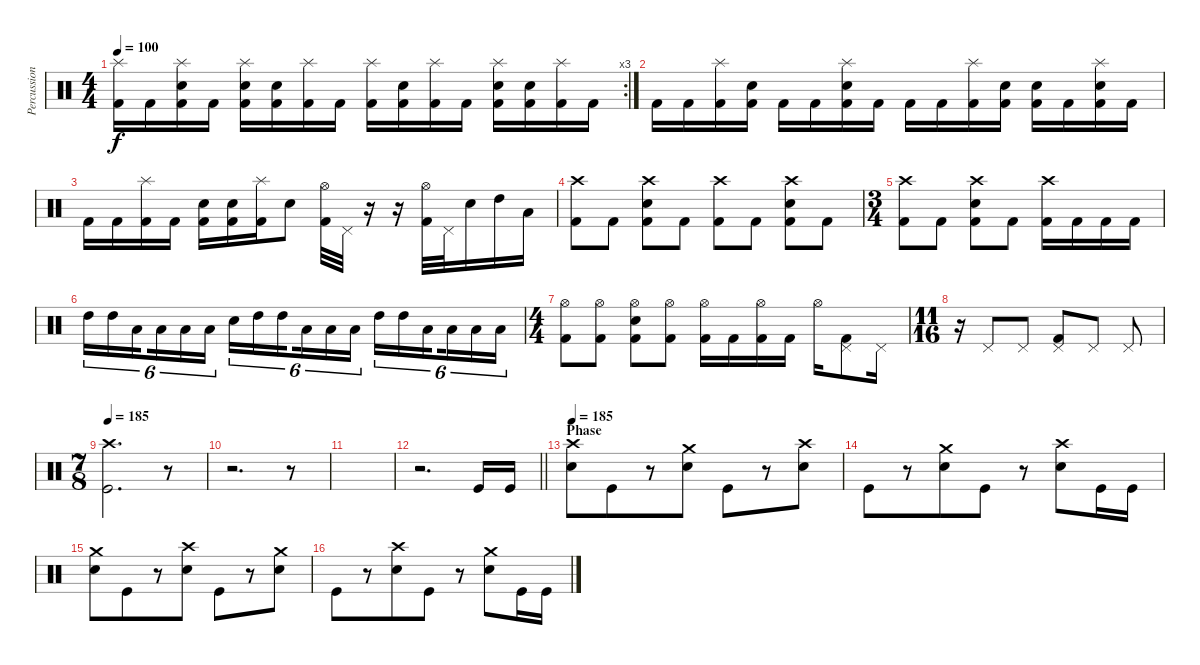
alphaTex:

\track ("Percussion" "Percussion") {instrument percussion}
\staff {score}
\articulation defaults
\rc 3
\ts (4 4)
\tempo 100
\clef neutral
\ks c
("Splash (hit)" "Kick (hit) 2").16{dy f} "Kick (hit) 2".16 ("Splash (hit)" "Electric Snare (hit)" "Kick (hit) 2").16 "Kick (hit) 2".16 ("Splash (hit)" "Electric Snare (hit)" "Kick (hit) 2").16 ("Electric Snare (hit)" "Kick (hit) 2").16 ("Splash (hit)" "Kick (hit) 2").16 "Kick (hit) 2".16 ("Splash (hit)" "Kick (hit) 2").16 ("Electric Snare (hit)" "Kick (hit) 2").16 ("Splash (hit)" "Kick (hit) 2").16 "Kick (hit) 2".16 ("Splash (hit)" "Electric Snare (hit)" "Kick (hit) 2").16 ("Electric Snare (hit)" "Kick (hit) 2").16 ("Splash (hit)" "Kick (hit) 2").16 "Kick (hit) 2".16 |
"Kick (hit) 2".16 "Kick (hit) 2".16 ("Splash (hit)" "Kick (hit) 2").16 ("Electric Snare (hit)" "Kick (hit) 2").16 "Kick (hit) 2".16 "Kick (hit) 2".16 ("Splash (hit)" "Electric Snare (hit)" "Kick (hit) 2").16 "Kick (hit) 2".16 "Kick (hit) 2".16 "Kick (hit) 2".16 ("Splash (hit)" "Kick (hit) 2").16 ("Electric Snare (hit)" "Kick (hit) 2").16 ("Electric Snare (hit)" "Kick (hit) 2").16 "Kick (hit) 2".16 ("Splash (hit)" "Electric Snare (hit)" "Kick (hit) 2").16 "Kick (hit) 2".16 |
"Kick (hit) 2".16 "Kick (hit) 2".16 ("Splash (hit)" "Kick (hit) 2").16 "Kick (hit) 2".16 ("Electric Snare (hit)" "Kick (hit) 2").16 ("Electric Snare (hit)" "Kick (hit) 2").16 ("Splash (hit)" "Kick (hit) 2").16 "Electric Snare (hit)".8 ("Hi-Hat (open)" "Kick (hit) 2").32 "Pedal Hi-Hat (hit)".32 r.16 r.16 ("Hi-Hat (open)" "Kick (hit) 2").32 "Pedal Hi-Hat (hit)".32 "Electric Snare (hit)".16 "High Tom (hit)".16 "Low Floor Tom (hit)".16 |
("Crash high (hit)" "Kick (hit) 2").8 "Kick (hit) 2".8 ("Crash high (hit)" "Electric Snare (hit)" "Kick (hit) 2").8 "Kick (hit) 2".8 ("Crash high (hit)" "Kick (hit) 2").8 "Kick (hit) 2".8 ("Crash high (hit)" "Electric Snare (hit)" "Kick (hit) 2").8 "Kick (hit) 2".8 |
\ts (3 4)
("Crash high (hit)" "Kick (hit) 2").8 "Kick (hit) 2".8 ("Crash high (hit)" "Electric Snare (hit)" "Kick (hit) 2").8 "Kick (hit) 2".8 ("Crash high (hit)" "Kick (hit) 2").16 "Kick (hit) 2".16 "Kick (hit) 2".16 "Kick (hit) 2".16 |
"High Tom (hit)".16{tu (6 4)} "High Tom (hit)".16{tu (6 4)} "Low Tom (hit)".16{tu (6 4) beam splitsecondary} "Low Tom (hit)".16{tu (6 4)} "Low Floor Tom (hit)".16{tu (6 4)} "Low Floor Tom (hit)".16{tu (6 4)} "Electric Snare (hit)".16{tu (6 4)} "High Tom (hit)".16{tu (6 4)} "High Tom (hit)".16{tu (6 4) beam splitsecondary} "Low Tom (hit)".16{tu (6 4)} "Low Tom (hit)".16{tu (6 4)} "Low Floor Tom (hit)".16{tu (6 4)} "High Tom (hit)".16{tu (6 4)} "High Tom (hit)".16{tu (6 4)} "Low Tom (hit)".16{tu (6 4) beam splitsecondary} "Low Tom (hit)".16{tu (6 4)} "Low Floor Tom (hit)".16{tu (6 4)} "Low Floor Tom (hit)".16{tu (6 4)} |
\ts (4 4)
("Hi-Hat (open)" "Kick (hit) 2").8 ("Hi-Hat (open)" "Kick (hit) 2").8 ("Hi-Hat (open)" "Electric Snare (hit)" "Kick (hit) 2").8 ("Hi-Hat (open)" "Kick (hit) 2").8 ("Hi-Hat (open)" "Kick (hit) 2").16 "Kick (hit) 2".16 ("Hi-Hat (open)" "Kick (hit) 2").16 "Kick (hit) 2".16 "Hi-Hat (open)".16 ("Pedal Hi-Hat (hit)" "Kick (hit) 2").8 "Pedal Hi-Hat (hit)".16 |
\ts (11 16)
r.16 "Pedal Hi-Hat (hit)".8 "Pedal Hi-Hat (hit)".8 ("Pedal Hi-Hat (hit)" "Kick (hit) 2").8 "Pedal Hi-Hat (hit)".8 "Pedal Hi-Hat (hit)".8 |
\ts (7 8)
\tempo 185
("Kick (hit)" "Crash high (hit)").2{d} r.8 |
r.2{d} r.8 |
|
\barLineRight lightlight
r.2{d} "Kick (hit)".16 "Kick (hit)".16 |
\section ("" "Phase")
\tempo 185
("Electric Snare (hit)" "Crash high (hit)").8 "Kick (hit)".8 r.8 ("Electric Snare (hit)" "Crash medium (hit)").8 "Kick (hit)".8 r.8 ("Electric Snare (hit)" "Crash high (hit)").8 |
"Kick (hit)".8 r.8 ("Electric Snare (hit)" "Crash medium (hit)").8 "Kick (hit)".8 r.8 ("Electric Snare (hit)" "Crash high (hit)").8 "Kick (hit)".16 "Kick (hit)".16 |
("Electric Snare (hit)" "Crash medium (hit)").8 "Kick (hit)".8 r.8 ("Electric Snare (hit)" "Crash high (hit)").8 "Kick (hit)".8 r.8 ("Electric Snare (hit)" "Crash medium (hit)").8 |
"Kick (hit)".8 r.8 ("Electric Snare (hit)" "Crash high (hit)").8 "Kick (hit)".8 r.8 ("Electric Snare (hit)" "Crash medium (hit)").8 "Kick (hit)".16 "Kick (hit)".16
